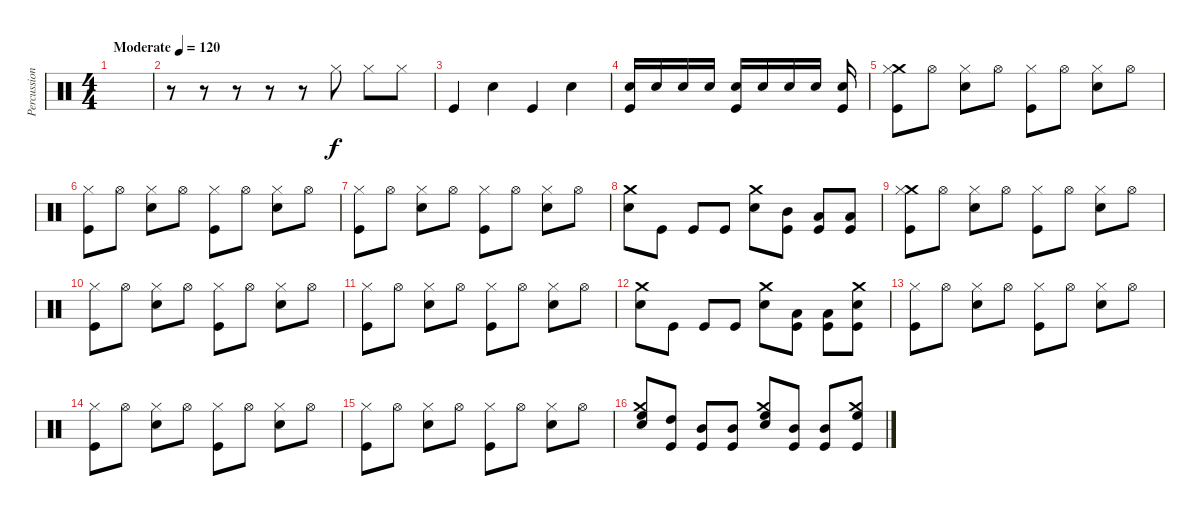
\track ("Percussion" "Percussion") {instrument percussion}
\staff {score}
\articulation defaults
\ts (4 4)
\tempo (120 "Moderate")
\clef neutral
\ks c
|
r.8 r.8 r.8 r.8 r.8 "Hi-Hat (closed)".8 "Hi-Hat (closed)".8 "Hi-Hat (closed)".8 |
"Kick (hit)".4 "Snare (hit) 2".4 "Kick (hit)".4 "Snare (hit) 2".4 |
("Snare (hit) 2" "Kick (hit)").16 "Snare (hit) 2".16 "Snare (hit) 2".16 "Snare (hit) 2".16 ("Snare (hit) 2" "Kick (hit)").16 "Snare (hit) 2".16 "Snare (hit) 2".16 "Snare (hit) 2".16 ("Snare (hit) 2" "Kick (hit)").16 |
("Crash medium (hit)" "Hi-Hat (closed)" "Kick (hit)").8 "Hi-Hat (open)".8 ("Snare (hit) 2" "Hi-Hat (closed)").8 "Hi-Hat (open)".8 ("Hi-Hat (closed)" "Kick (hit)").8 "Hi-Hat (open)".8 ("Snare (hit) 2" "Hi-Hat (closed)").8 "Hi-Hat (open)".8 |
("Hi-Hat (closed)" "Kick (hit)").8 "Hi-Hat (open)".8 ("Snare (hit) 2" "Hi-Hat (closed)").8 "Hi-Hat (open)".8 ("Hi-Hat (closed)" "Kick (hit)").8 "Hi-Hat (open)".8 ("Snare (hit) 2" "Hi-Hat (closed)").8 "Hi-Hat (open)".8 |
("Hi-Hat (closed)" "Kick (hit)").8 "Hi-Hat (open)".8 ("Snare (hit) 2" "Hi-Hat (closed)").8 "Hi-Hat (open)".8 ("Hi-Hat (closed)" "Kick (hit)").8 "Hi-Hat (open)".8 ("Snare (hit) 2" "Hi-Hat (closed)").8 "Hi-Hat (open)".8 |
("Crash medium (hit)" "Snare (hit) 2").8 "Kick (hit)".8 "Kick (hit)".8 "Kick (hit)".8 ("Crash medium (hit)" "Snare (hit) 2").8 ("Mid Tom (hit)" "Kick (hit)").8 ("Low Tom (hit)" "Kick (hit)").8 ("Low Tom (hit)" "Kick (hit)").8 |
("Crash medium (hit)" "Hi-Hat (closed)" "Kick (hit)").8 "Hi-Hat (open)".8 ("Snare (hit) 2" "Hi-Hat (closed)").8 "Hi-Hat (open)".8 ("Hi-Hat (closed)" "Kick (hit)").8 "Hi-Hat (open)".8 ("Snare (hit) 2" "Hi-Hat (closed)").8 "Hi-Hat (open)".8 |
("Hi-Hat (closed)" "Kick (hit)").8 "Hi-Hat (open)".8 ("Snare (hit) 2" "Hi-Hat (closed)").8 "Hi-Hat (open)".8 ("Hi-Hat (closed)" "Kick (hit)").8 "Hi-Hat (open)".8 ("Snare (hit) 2" "Hi-Hat (closed)").8 "Hi-Hat (open)".8 |
("Hi-Hat (closed)" "Kick (hit)").8 "Hi-Hat (open)".8 ("Snare (hit) 2" "Hi-Hat (closed)").8 "Hi-Hat (open)".8 ("Hi-Hat (closed)" "Kick (hit)").8 "Hi-Hat (open)".8 ("Snare (hit) 2" "Hi-Hat (closed)").8 "Hi-Hat (open)".8 |
("Crash medium (hit)" "Snare (hit) 2").8 "Kick (hit)".8 "Kick (hit)".8 "Kick (hit)".8 ("Crash medium (hit)" "Snare (hit) 2").8 ("Low Tom (hit)" "Kick (hit)").8 ("Low Tom (hit)" "Kick (hit)").8 ("Crash medium (hit)" "Snare (hit) 2" "Kick (hit)").8 |
("Hi-Hat (closed)" "Kick (hit)").8 "Hi-Hat (open)".8 ("Snare (hit) 2" "Hi-Hat (closed)").8 "Hi-Hat (open)".8 ("Hi-Hat (closed)" "Kick (hit)").8 "Hi-Hat (open)".8 ("Snare (hit) 2" "Hi-Hat (closed)").8 "Hi-Hat (open)".8 |
("Hi-Hat (closed)" "Kick (hit)").8 "Hi-Hat (open)".8 ("Snare (hit) 2" "Hi-Hat (closed)").8 "Hi-Hat (open)".8 ("Hi-Hat (closed)" "Kick (hit)").8 "Hi-Hat (open)".8 ("Snare (hit) 2" "Hi-Hat (closed)").8 "Hi-Hat (open)".8 |
("Hi-Hat (closed)" "Kick (hit)").8 "Hi-Hat (open)".8 ("Snare (hit) 2" "Hi-Hat (closed)").8 "Hi-Hat (open)".8 ("Hi-Hat (closed)" "Kick (hit)").8 "Hi-Hat (open)".8 ("Snare (hit) 2" "Hi-Hat (closed)").8 "Hi-Hat (open)".8 |
("Crash medium (hit)" "High Floor Tom (hit)" "Snare (hit) 2").8 ("High Tom (hit)" "Kick (hit)").8 ("Mid Tom (hit)" "Kick (hit)").8 ("Mid Tom (hit)" "Kick (hit)").8 ("Crash medium (hit)" "High Floor Tom (hit)" "Snare (hit) 2").8 ("Mid Tom (hit)" "Kick (hit)").8 ("Mid Tom (hit)" "Kick (hit)").8 ("Crash medium (hit)" "High Floor Tom (hit)" "Kick (hit)").8
